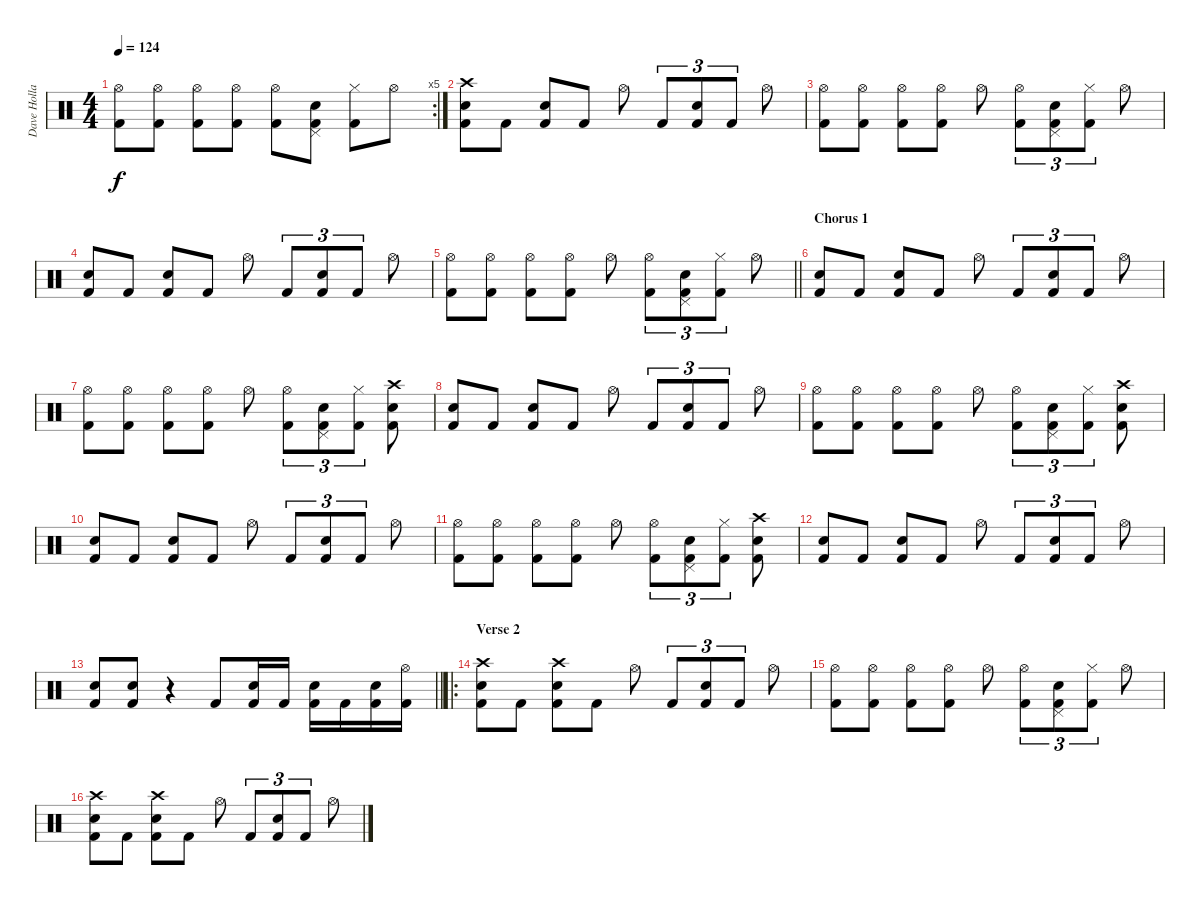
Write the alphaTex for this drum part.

\track ("Dave Holland" "Dave Holla") {instrument percussion}
\staff {score}
\articulation defaults
\rc 5
\ts (4 4)
\tempo 124
\clef neutral
\ks c
("Hi-Hat (open)" "Kick (hit) 2").8{dy f} ("Hi-Hat (open)" "Kick (hit) 2").8 ("Hi-Hat (open)" "Kick (hit) 2").8 ("Hi-Hat (open)" "Kick (hit) 2").8 ("Hi-Hat (open)" "Kick (hit) 2").8 ("Pedal Hi-Hat (hit)" "Snare (hit) 2" "Kick (hit) 2").8 ("Hi-Hat (closed)" "Kick (hit) 2").8 "Hi-Hat (open)".8 |
("Crash high (hit)" "Snare (hit) 2" "Kick (hit) 2").8 "Kick (hit) 2".8 ("Snare (hit) 2" "Kick (hit) 2").8 "Kick (hit) 2".8 "Hi-Hat (open)".8 "Kick (hit) 2".8{tu (3 2)} ("Snare (hit) 2" "Kick (hit) 2").8{tu (3 2)} "Kick (hit) 2".8{tu (3 2)} "Hi-Hat (open)".8 |
("Hi-Hat (open)" "Kick (hit) 2").8 ("Hi-Hat (open)" "Kick (hit) 2").8 ("Hi-Hat (open)" "Kick (hit) 2").8 ("Hi-Hat (open)" "Kick (hit) 2").8 "Hi-Hat (open)".8 ("Hi-Hat (open)" "Kick (hit) 2").8{tu (3 2)} ("Pedal Hi-Hat (hit)" "Snare (hit) 2" "Kick (hit) 2").8{tu (3 2)} ("Hi-Hat (closed)" "Kick (hit) 2").8{tu (3 2)} "Hi-Hat (open)".8 |
("Snare (hit) 2" "Kick (hit) 2").8 "Kick (hit) 2".8 ("Snare (hit) 2" "Kick (hit) 2").8 "Kick (hit) 2".8 "Hi-Hat (open)".8 "Kick (hit) 2".8{tu (3 2)} ("Snare (hit) 2" "Kick (hit) 2").8{tu (3 2)} "Kick (hit) 2".8{tu (3 2)} "Hi-Hat (open)".8 |
\barLineRight lightlight
("Hi-Hat (open)" "Kick (hit) 2").8 ("Hi-Hat (open)" "Kick (hit) 2").8 ("Hi-Hat (open)" "Kick (hit) 2").8 ("Hi-Hat (open)" "Kick (hit) 2").8 "Hi-Hat (open)".8 ("Hi-Hat (open)" "Kick (hit) 2").8{tu (3 2)} ("Pedal Hi-Hat (hit)" "Snare (hit) 2" "Kick (hit) 2").8{tu (3 2)} ("Hi-Hat (closed)" "Kick (hit) 2").8{tu (3 2)} "Hi-Hat (open)".8 |
\section ("" "Chorus 1")
("Snare (hit) 2" "Kick (hit) 2").8 "Kick (hit) 2".8 ("Snare (hit) 2" "Kick (hit) 2").8 "Kick (hit) 2".8 "Hi-Hat (open)".8 "Kick (hit) 2".8{tu (3 2)} ("Snare (hit) 2" "Kick (hit) 2").8{tu (3 2)} "Kick (hit) 2".8{tu (3 2)} "Hi-Hat (open)".8 |
("Hi-Hat (open)" "Kick (hit) 2").8 ("Hi-Hat (open)" "Kick (hit) 2").8 ("Hi-Hat (open)" "Kick (hit) 2").8 ("Hi-Hat (open)" "Kick (hit) 2").8 "Hi-Hat (open)".8 ("Hi-Hat (open)" "Kick (hit) 2").8{tu (3 2)} ("Pedal Hi-Hat (hit)" "Snare (hit) 2" "Kick (hit) 2").8{tu (3 2)} ("Hi-Hat (closed)" "Kick (hit) 2").8{tu (3 2)} ("Crash high (hit)" "Snare (hit) 2" "Kick (hit) 2").8 |
("Snare (hit) 2" "Kick (hit) 2").8 "Kick (hit) 2".8 ("Snare (hit) 2" "Kick (hit) 2").8 "Kick (hit) 2".8 "Hi-Hat (open)".8 "Kick (hit) 2".8{tu (3 2)} ("Snare (hit) 2" "Kick (hit) 2").8{tu (3 2)} "Kick (hit) 2".8{tu (3 2)} "Hi-Hat (open)".8 |
("Hi-Hat (open)" "Kick (hit) 2").8 ("Hi-Hat (open)" "Kick (hit) 2").8 ("Hi-Hat (open)" "Kick (hit) 2").8 ("Hi-Hat (open)" "Kick (hit) 2").8 "Hi-Hat (open)".8 ("Hi-Hat (open)" "Kick (hit) 2").8{tu (3 2)} ("Pedal Hi-Hat (hit)" "Snare (hit) 2" "Kick (hit) 2").8{tu (3 2)} ("Hi-Hat (closed)" "Kick (hit) 2").8{tu (3 2)} ("Crash high (hit)" "Snare (hit) 2" "Kick (hit) 2").8 |
("Snare (hit) 2" "Kick (hit) 2").8 "Kick (hit) 2".8 ("Snare (hit) 2" "Kick (hit) 2").8 "Kick (hit) 2".8 "Hi-Hat (open)".8 "Kick (hit) 2".8{tu (3 2)} ("Snare (hit) 2" "Kick (hit) 2").8{tu (3 2)} "Kick (hit) 2".8{tu (3 2)} "Hi-Hat (open)".8 |
("Hi-Hat (open)" "Kick (hit) 2").8 ("Hi-Hat (open)" "Kick (hit) 2").8 ("Hi-Hat (open)" "Kick (hit) 2").8 ("Hi-Hat (open)" "Kick (hit) 2").8 "Hi-Hat (open)".8 ("Hi-Hat (open)" "Kick (hit) 2").8{tu (3 2)} ("Pedal Hi-Hat (hit)" "Snare (hit) 2" "Kick (hit) 2").8{tu (3 2)} ("Hi-Hat (closed)" "Kick (hit) 2").8{tu (3 2)} ("Crash high (hit)" "Snare (hit) 2" "Kick (hit) 2").8 |
("Snare (hit) 2" "Kick (hit) 2").8 "Kick (hit) 2".8 ("Snare (hit) 2" "Kick (hit) 2").8 "Kick (hit) 2".8 "Hi-Hat (open)".8 "Kick (hit) 2".8{tu (3 2)} ("Snare (hit) 2" "Kick (hit) 2").8{tu (3 2)} "Kick (hit) 2".8{tu (3 2)} "Hi-Hat (open)".8 |
\barLineRight lightlight
("Snare (hit) 2" "Kick (hit) 2").8 ("Snare (hit) 2" "Kick (hit) 2").8 r.4 "Kick (hit) 2".8 ("Snare (hit) 2" "Kick (hit) 2").16 "Kick (hit) 2".16 ("Snare (hit) 2" "Kick (hit) 2").16 "Kick (hit) 2".16 ("Snare (hit) 2" "Kick (hit) 2").16 ("Hi-Hat (open)" "Kick (hit) 2").16 |
\ro
\section ("" "Verse 2")
("Crash high (hit)" "Snare (hit) 2" "Kick (hit) 2").8 "Kick (hit) 2".8 ("Crash high (hit)" "Snare (hit) 2" "Kick (hit) 2").8 "Kick (hit) 2".8 "Hi-Hat (open)".8 "Kick (hit) 2".8{tu (3 2)} ("Snare (hit) 2" "Kick (hit) 2").8{tu (3 2)} "Kick (hit) 2".8{tu (3 2)} "Hi-Hat (open)".8 |
("Hi-Hat (open)" "Kick (hit) 2").8 ("Hi-Hat (open)" "Kick (hit) 2").8 ("Hi-Hat (open)" "Kick (hit) 2").8 ("Hi-Hat (open)" "Kick (hit) 2").8 "Hi-Hat (open)".8 ("Hi-Hat (open)" "Kick (hit) 2").8{tu (3 2)} ("Pedal Hi-Hat (hit)" "Snare (hit) 2" "Kick (hit) 2").8{tu (3 2)} ("Hi-Hat (closed)" "Kick (hit) 2").8{tu (3 2)} "Hi-Hat (open)".8 |
("Crash high (hit)" "Snare (hit) 2" "Kick (hit) 2").8 "Kick (hit) 2".8 ("Crash high (hit)" "Snare (hit) 2" "Kick (hit) 2").8 "Kick (hit) 2".8 "Hi-Hat (open)".8 "Kick (hit) 2".8{tu (3 2)} ("Snare (hit) 2" "Kick (hit) 2").8{tu (3 2)} "Kick (hit) 2".8{tu (3 2)} "Hi-Hat (open)".8
